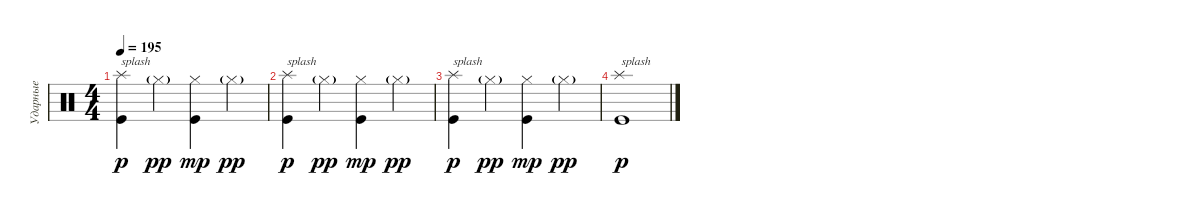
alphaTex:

\track ("Ударные" "Ударные") {instrument percussion}
\staff {score}
\articulation defaults
\ts (4 4)
\tempo 195
\clef neutral
\ks c
("Splash (hit)" "Kick (hit)").4{txt "splash" dy p} "Hi-Hat (closed)"{g}.4{dy pp} ("Hi-Hat (closed)" "Kick (hit)").4{dy mp} "Hi-Hat (closed)"{g}.4{dy pp} |
("Splash (hit)" "Kick (hit)").4{txt "splash" dy p} "Hi-Hat (closed)"{g}.4{dy pp} ("Hi-Hat (closed)" "Kick (hit)").4{dy mp} "Hi-Hat (closed)"{g}.4{dy pp} |
("Splash (hit)" "Kick (hit)").4{txt "splash" dy p} "Hi-Hat (closed)"{g}.4{dy pp} ("Hi-Hat (closed)" "Kick (hit)").4{dy mp} "Hi-Hat (closed)"{g}.4{dy pp} |
("Splash (hit)" "Kick (hit)").1{txt "splash" dy p}
